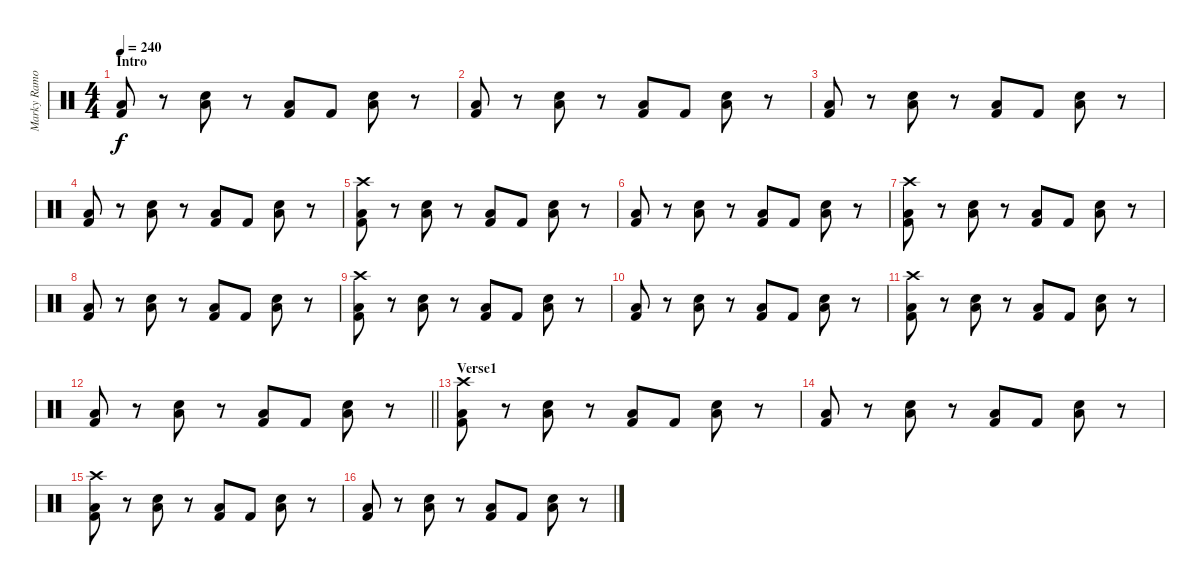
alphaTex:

\track ("Marky Ramone" "Marky Ramo") {instrument percussion}
\staff {score}
\articulation defaults
\ts (4 4)
\section ("" "Intro")
\tempo 240
\clef neutral
\ks c
("Kick (hit) 2" "Low Floor Tom (hit)").8{dy f} r.8 ("Electric Snare (hit)" "Low Floor Tom (hit)").8 r.8 ("Kick (hit) 2" "Low Floor Tom (hit)").8 "Kick (hit) 2".8 ("Electric Snare (hit)" "Low Floor Tom (hit)").8 r.8 |
("Kick (hit) 2" "Low Floor Tom (hit)").8 r.8 ("Electric Snare (hit)" "Low Floor Tom (hit)").8 r.8 ("Kick (hit) 2" "Low Floor Tom (hit)").8 "Kick (hit) 2".8 ("Electric Snare (hit)" "Low Floor Tom (hit)").8 r.8 |
("Kick (hit) 2" "Low Floor Tom (hit)").8 r.8 ("Electric Snare (hit)" "Low Floor Tom (hit)").8 r.8 ("Kick (hit) 2" "Low Floor Tom (hit)").8 "Kick (hit) 2".8 ("Electric Snare (hit)" "Low Floor Tom (hit)").8 r.8 |
("Kick (hit) 2" "Low Floor Tom (hit)").8 r.8 ("Electric Snare (hit)" "Low Floor Tom (hit)").8 r.8 ("Kick (hit) 2" "Low Floor Tom (hit)").8 "Kick (hit) 2".8 ("Electric Snare (hit)" "Low Floor Tom (hit)").8 r.8 |
("Kick (hit) 2" "Low Floor Tom (hit)" "Crash high (hit)").8 r.8 ("Electric Snare (hit)" "Low Floor Tom (hit)").8 r.8 ("Kick (hit) 2" "Low Floor Tom (hit)").8 "Kick (hit) 2".8 ("Electric Snare (hit)" "Low Floor Tom (hit)").8 r.8 |
("Kick (hit) 2" "Low Floor Tom (hit)").8 r.8 ("Electric Snare (hit)" "Low Floor Tom (hit)").8 r.8 ("Kick (hit) 2" "Low Floor Tom (hit)").8 "Kick (hit) 2".8 ("Electric Snare (hit)" "Low Floor Tom (hit)").8 r.8 |
("Kick (hit) 2" "Low Floor Tom (hit)" "Crash high (hit)").8 r.8 ("Electric Snare (hit)" "Low Floor Tom (hit)").8 r.8 ("Kick (hit) 2" "Low Floor Tom (hit)").8 "Kick (hit) 2".8 ("Electric Snare (hit)" "Low Floor Tom (hit)").8 r.8 |
("Kick (hit) 2" "Low Floor Tom (hit)").8 r.8 ("Electric Snare (hit)" "Low Floor Tom (hit)").8 r.8 ("Kick (hit) 2" "Low Floor Tom (hit)").8 "Kick (hit) 2".8 ("Electric Snare (hit)" "Low Floor Tom (hit)").8 r.8 |
("Kick (hit) 2" "Low Floor Tom (hit)" "Crash high (hit)").8 r.8 ("Electric Snare (hit)" "Low Floor Tom (hit)").8 r.8 ("Kick (hit) 2" "Low Floor Tom (hit)").8 "Kick (hit) 2".8 ("Electric Snare (hit)" "Low Floor Tom (hit)").8 r.8 |
("Kick (hit) 2" "Low Floor Tom (hit)").8 r.8 ("Electric Snare (hit)" "Low Floor Tom (hit)").8 r.8 ("Kick (hit) 2" "Low Floor Tom (hit)").8 "Kick (hit) 2".8 ("Electric Snare (hit)" "Low Floor Tom (hit)").8 r.8 |
("Kick (hit) 2" "Low Floor Tom (hit)" "Crash high (hit)").8 r.8 ("Electric Snare (hit)" "Low Floor Tom (hit)").8 r.8 ("Kick (hit) 2" "Low Floor Tom (hit)").8 "Kick (hit) 2".8 ("Electric Snare (hit)" "Low Floor Tom (hit)").8 r.8 |
\barLineRight lightlight
("Kick (hit) 2" "Low Floor Tom (hit)").8 r.8 ("Electric Snare (hit)" "Low Floor Tom (hit)").8 r.8 ("Kick (hit) 2" "Low Floor Tom (hit)").8 "Kick (hit) 2".8 ("Electric Snare (hit)" "Low Floor Tom (hit)").8 r.8 |
\section ("" "Verse1")
("Kick (hit) 2" "Low Floor Tom (hit)" "Crash high (hit)").8 r.8 ("Electric Snare (hit)" "Low Floor Tom (hit)").8 r.8 ("Kick (hit) 2" "Low Floor Tom (hit)").8 "Kick (hit) 2".8 ("Electric Snare (hit)" "Low Floor Tom (hit)").8 r.8 |
("Kick (hit) 2" "Low Floor Tom (hit)").8 r.8 ("Electric Snare (hit)" "Low Floor Tom (hit)").8 r.8 ("Kick (hit) 2" "Low Floor Tom (hit)").8 "Kick (hit) 2".8 ("Electric Snare (hit)" "Low Floor Tom (hit)").8 r.8 |
("Kick (hit) 2" "Low Floor Tom (hit)" "Crash high (hit)").8 r.8 ("Electric Snare (hit)" "Low Floor Tom (hit)").8 r.8 ("Kick (hit) 2" "Low Floor Tom (hit)").8 "Kick (hit) 2".8 ("Electric Snare (hit)" "Low Floor Tom (hit)").8 r.8 |
("Kick (hit) 2" "Low Floor Tom (hit)").8 r.8 ("Electric Snare (hit)" "Low Floor Tom (hit)").8 r.8 ("Kick (hit) 2" "Low Floor Tom (hit)").8 "Kick (hit) 2".8 ("Electric Snare (hit)" "Low Floor Tom (hit)").8 r.8
